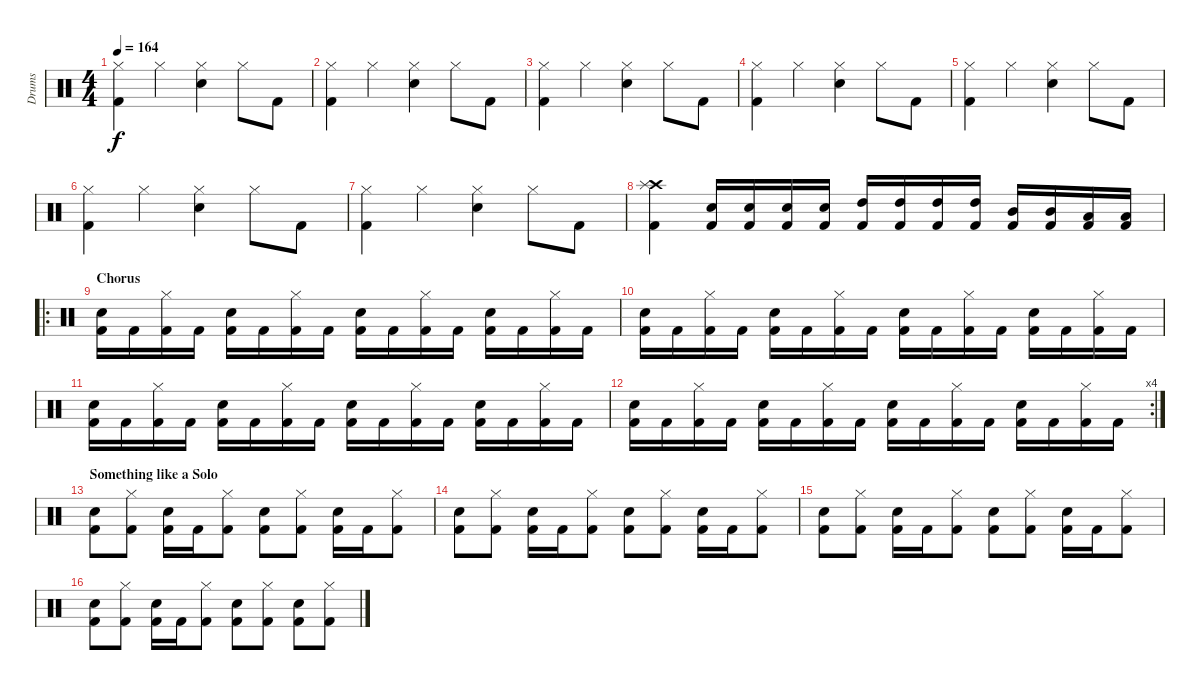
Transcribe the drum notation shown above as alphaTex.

\track ("Drums" "Drums") {instrument percussion}
\staff {score}
\articulation defaults
\ts (4 4)
\tempo 164
\clef neutral
\ks c
("Hi-Hat (closed)" "Kick (hit) 2").4{dy f} "Hi-Hat (closed)".4 ("Hi-Hat (closed)" "Snare (hit) 2").4 "Hi-Hat (closed)".8 "Kick (hit) 2".8 |
("Hi-Hat (closed)" "Kick (hit) 2").4 "Hi-Hat (closed)".4 ("Hi-Hat (closed)" "Snare (hit) 2").4 "Hi-Hat (closed)".8 "Kick (hit) 2".8 |
("Hi-Hat (closed)" "Kick (hit) 2").4 "Hi-Hat (closed)".4 ("Hi-Hat (closed)" "Snare (hit) 2").4 "Hi-Hat (closed)".8 "Kick (hit) 2".8 |
("Hi-Hat (closed)" "Kick (hit) 2").4 "Hi-Hat (closed)".4 ("Hi-Hat (closed)" "Snare (hit) 2").4 "Hi-Hat (closed)".8 "Kick (hit) 2".8 |
("Hi-Hat (closed)" "Kick (hit) 2").4 "Hi-Hat (closed)".4 ("Hi-Hat (closed)" "Snare (hit) 2").4 "Hi-Hat (closed)".8 "Kick (hit) 2".8 |
("Hi-Hat (closed)" "Kick (hit) 2").4 "Hi-Hat (closed)".4 ("Hi-Hat (closed)" "Snare (hit) 2").4 "Hi-Hat (closed)".8 "Kick (hit) 2".8 |
("Hi-Hat (closed)" "Kick (hit) 2").4 "Hi-Hat (closed)".4 ("Hi-Hat (closed)" "Snare (hit) 2").4 "Hi-Hat (closed)".8 "Kick (hit) 2".8 |
("Crash high (hit)" "Splash (hit)" "Kick (hit) 2").4 ("Snare (hit) 2" "Kick (hit) 2").16 ("Snare (hit) 2" "Kick (hit) 2").16 ("Snare (hit) 2" "Kick (hit) 2").16 ("Snare (hit) 2" "Kick (hit) 2").16 ("High Tom (hit)" "Kick (hit) 2").16 ("High Tom (hit)" "Kick (hit) 2").16 ("High Tom (hit)" "Kick (hit) 2").16 ("High Tom (hit)" "Kick (hit) 2").16 ("Mid Tom (hit)" "Kick (hit) 2").16 ("Mid Tom (hit)" "Kick (hit) 2").16 ("Low Tom (hit)" "Kick (hit) 2").16 ("Low Tom (hit)" "Kick (hit) 2").16 |
\ro
\section ("" "Chorus")
("Snare (hit) 2" "Kick (hit) 2").16 "Kick (hit) 2".16 ("Hi-Hat (closed)" "Kick (hit) 2").16 "Kick (hit) 2".16 ("Snare (hit) 2" "Kick (hit) 2").16 "Kick (hit) 2".16 ("Hi-Hat (closed)" "Kick (hit) 2").16 "Kick (hit) 2".16 ("Snare (hit) 2" "Kick (hit) 2").16 "Kick (hit) 2".16 ("Hi-Hat (closed)" "Kick (hit) 2").16 "Kick (hit) 2".16 ("Snare (hit) 2" "Kick (hit) 2").16 "Kick (hit) 2".16 ("Hi-Hat (closed)" "Kick (hit) 2").16 "Kick (hit) 2".16 |
("Snare (hit) 2" "Kick (hit) 2").16 "Kick (hit) 2".16 ("Hi-Hat (closed)" "Kick (hit) 2").16 "Kick (hit) 2".16 ("Snare (hit) 2" "Kick (hit) 2").16 "Kick (hit) 2".16 ("Hi-Hat (closed)" "Kick (hit) 2").16 "Kick (hit) 2".16 ("Snare (hit) 2" "Kick (hit) 2").16 "Kick (hit) 2".16 ("Hi-Hat (closed)" "Kick (hit) 2").16 "Kick (hit) 2".16 ("Snare (hit) 2" "Kick (hit) 2").16 "Kick (hit) 2".16 ("Hi-Hat (closed)" "Kick (hit) 2").16 "Kick (hit) 2".16 |
("Snare (hit) 2" "Kick (hit) 2").16 "Kick (hit) 2".16 ("Hi-Hat (closed)" "Kick (hit) 2").16 "Kick (hit) 2".16 ("Snare (hit) 2" "Kick (hit) 2").16 "Kick (hit) 2".16 ("Hi-Hat (closed)" "Kick (hit) 2").16 "Kick (hit) 2".16 ("Snare (hit) 2" "Kick (hit) 2").16 "Kick (hit) 2".16 ("Hi-Hat (closed)" "Kick (hit) 2").16 "Kick (hit) 2".16 ("Snare (hit) 2" "Kick (hit) 2").16 "Kick (hit) 2".16 ("Hi-Hat (closed)" "Kick (hit) 2").16 "Kick (hit) 2".16 |
\rc 4
("Snare (hit) 2" "Kick (hit) 2").16 "Kick (hit) 2".16 ("Hi-Hat (closed)" "Kick (hit) 2").16 "Kick (hit) 2".16 ("Snare (hit) 2" "Kick (hit) 2").16 "Kick (hit) 2".16 ("Hi-Hat (closed)" "Kick (hit) 2").16 "Kick (hit) 2".16 ("Snare (hit) 2" "Kick (hit) 2").16 "Kick (hit) 2".16 ("Hi-Hat (closed)" "Kick (hit) 2").16 "Kick (hit) 2".16 ("Snare (hit) 2" "Kick (hit) 2").16 "Kick (hit) 2".16 ("Hi-Hat (closed)" "Kick (hit) 2").16 "Kick (hit) 2".16 |
\section ("" "Something like a Solo")
("Snare (hit) 2" "Kick (hit) 2").8 ("Hi-Hat (closed)" "Kick (hit) 2").8 ("Snare (hit) 2" "Kick (hit) 2").16 "Kick (hit) 2".16 ("Hi-Hat (closed)" "Kick (hit) 2").8 ("Snare (hit) 2" "Kick (hit) 2").8 ("Hi-Hat (closed)" "Kick (hit) 2").8 ("Snare (hit) 2" "Kick (hit) 2").16 "Kick (hit) 2".16 ("Hi-Hat (closed)" "Kick (hit) 2").8 |
("Snare (hit) 2" "Kick (hit) 2").8 ("Hi-Hat (closed)" "Kick (hit) 2").8 ("Snare (hit) 2" "Kick (hit) 2").16 "Kick (hit) 2".16 ("Hi-Hat (closed)" "Kick (hit) 2").8 ("Snare (hit) 2" "Kick (hit) 2").8 ("Hi-Hat (closed)" "Kick (hit) 2").8 ("Snare (hit) 2" "Kick (hit) 2").16 "Kick (hit) 2".16 ("Hi-Hat (closed)" "Kick (hit) 2").8 |
("Snare (hit) 2" "Kick (hit) 2").8 ("Hi-Hat (closed)" "Kick (hit) 2").8 ("Snare (hit) 2" "Kick (hit) 2").16 "Kick (hit) 2".16 ("Hi-Hat (closed)" "Kick (hit) 2").8 ("Snare (hit) 2" "Kick (hit) 2").8 ("Hi-Hat (closed)" "Kick (hit) 2").8 ("Snare (hit) 2" "Kick (hit) 2").16 "Kick (hit) 2".16 ("Hi-Hat (closed)" "Kick (hit) 2").8 |
("Snare (hit) 2" "Kick (hit) 2").8 ("Hi-Hat (closed)" "Kick (hit) 2").8 ("Snare (hit) 2" "Kick (hit) 2").16 "Kick (hit) 2".16 ("Hi-Hat (closed)" "Kick (hit) 2").8 ("Snare (hit) 2" "Kick (hit) 2").8 ("Hi-Hat (closed)" "Kick (hit) 2").8 ("Snare (hit) 2" "Kick (hit) 2").8 ("Hi-Hat (closed)" "Kick (hit) 2").8
